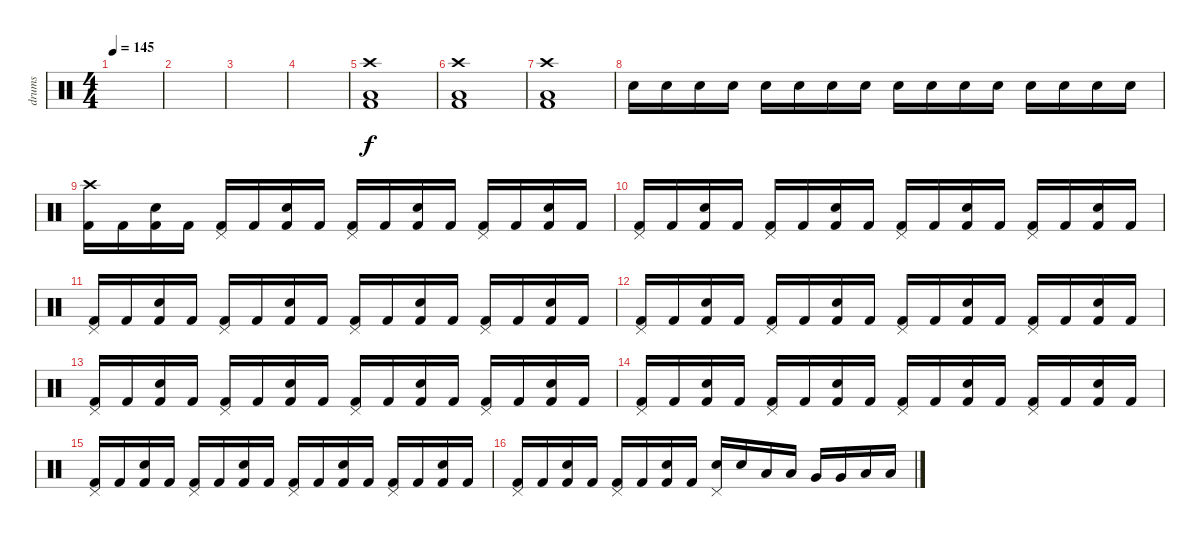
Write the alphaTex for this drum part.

\track ("drums" "drums") {instrument percussion}
\staff {score}
\articulation defaults
\ts (4 4)
\tempo 145
\clef neutral
\ks c
|
|
|
|
("Crash high (hit)" "Low Floor Tom (hit)" "Kick (hit) 2").1 |
("Crash high (hit)" "Low Floor Tom (hit)" "Kick (hit) 2").1 |
("Crash high (hit)" "Low Floor Tom (hit)" "Kick (hit) 2").1 |
"Electric Snare (hit)".16 "Electric Snare (hit)".16 "Electric Snare (hit)".16 "Electric Snare (hit)".16 "Electric Snare (hit)".16 "Electric Snare (hit)".16 "Electric Snare (hit)".16 "Electric Snare (hit)".16 "Electric Snare (hit)".16 "Electric Snare (hit)".16 "Electric Snare (hit)".16 "Electric Snare (hit)".16 "Electric Snare (hit)".16 "Electric Snare (hit)".16 "Electric Snare (hit)".16 "Electric Snare (hit)".16 |
("Crash high (hit)" "Kick (hit) 2").16 "Kick (hit) 2".16 ("Electric Snare (hit)" "Kick (hit) 2").16 "Kick (hit) 2".16 ("Pedal Hi-Hat (hit)" "Kick (hit) 2").16 "Kick (hit) 2".16 ("Electric Snare (hit)" "Kick (hit) 2").16 "Kick (hit) 2".16 ("Pedal Hi-Hat (hit)" "Kick (hit) 2").16 "Kick (hit) 2".16 ("Electric Snare (hit)" "Kick (hit) 2").16 "Kick (hit) 2".16 ("Pedal Hi-Hat (hit)" "Kick (hit) 2").16 "Kick (hit) 2".16 ("Electric Snare (hit)" "Kick (hit) 2").16 "Kick (hit) 2".16 |
("Pedal Hi-Hat (hit)" "Kick (hit) 2").16 "Kick (hit) 2".16 ("Electric Snare (hit)" "Kick (hit) 2").16 "Kick (hit) 2".16 ("Pedal Hi-Hat (hit)" "Kick (hit) 2").16 "Kick (hit) 2".16 ("Electric Snare (hit)" "Kick (hit) 2").16 "Kick (hit) 2".16 ("Pedal Hi-Hat (hit)" "Kick (hit) 2").16 "Kick (hit) 2".16 ("Electric Snare (hit)" "Kick (hit) 2").16 "Kick (hit) 2".16 ("Pedal Hi-Hat (hit)" "Kick (hit) 2").16 "Kick (hit) 2".16 ("Electric Snare (hit)" "Kick (hit) 2").16 "Kick (hit) 2".16 |
("Pedal Hi-Hat (hit)" "Kick (hit) 2").16 "Kick (hit) 2".16 ("Electric Snare (hit)" "Kick (hit) 2").16 "Kick (hit) 2".16 ("Pedal Hi-Hat (hit)" "Kick (hit) 2").16 "Kick (hit) 2".16 ("Electric Snare (hit)" "Kick (hit) 2").16 "Kick (hit) 2".16 ("Pedal Hi-Hat (hit)" "Kick (hit) 2").16 "Kick (hit) 2".16 ("Electric Snare (hit)" "Kick (hit) 2").16 "Kick (hit) 2".16 ("Pedal Hi-Hat (hit)" "Kick (hit) 2").16 "Kick (hit) 2".16 ("Electric Snare (hit)" "Kick (hit) 2").16 "Kick (hit) 2".16 |
("Pedal Hi-Hat (hit)" "Kick (hit) 2").16 "Kick (hit) 2".16 ("Electric Snare (hit)" "Kick (hit) 2").16 "Kick (hit) 2".16 ("Pedal Hi-Hat (hit)" "Kick (hit) 2").16 "Kick (hit) 2".16 ("Electric Snare (hit)" "Kick (hit) 2").16 "Kick (hit) 2".16 ("Pedal Hi-Hat (hit)" "Kick (hit) 2").16 "Kick (hit) 2".16 ("Electric Snare (hit)" "Kick (hit) 2").16 "Kick (hit) 2".16 ("Pedal Hi-Hat (hit)" "Kick (hit) 2").16 "Kick (hit) 2".16 ("Electric Snare (hit)" "Kick (hit) 2").16 "Kick (hit) 2".16 |
("Pedal Hi-Hat (hit)" "Kick (hit) 2").16 "Kick (hit) 2".16 ("Electric Snare (hit)" "Kick (hit) 2").16 "Kick (hit) 2".16 ("Pedal Hi-Hat (hit)" "Kick (hit) 2").16 "Kick (hit) 2".16 ("Electric Snare (hit)" "Kick (hit) 2").16 "Kick (hit) 2".16 ("Pedal Hi-Hat (hit)" "Kick (hit) 2").16 "Kick (hit) 2".16 ("Electric Snare (hit)" "Kick (hit) 2").16 "Kick (hit) 2".16 ("Pedal Hi-Hat (hit)" "Kick (hit) 2").16 "Kick (hit) 2".16 ("Electric Snare (hit)" "Kick (hit) 2").16 "Kick (hit) 2".16 |
("Pedal Hi-Hat (hit)" "Kick (hit) 2").16 "Kick (hit) 2".16 ("Electric Snare (hit)" "Kick (hit) 2").16 "Kick (hit) 2".16 ("Pedal Hi-Hat (hit)" "Kick (hit) 2").16 "Kick (hit) 2".16 ("Electric Snare (hit)" "Kick (hit) 2").16 "Kick (hit) 2".16 ("Pedal Hi-Hat (hit)" "Kick (hit) 2").16 "Kick (hit) 2".16 ("Electric Snare (hit)" "Kick (hit) 2").16 "Kick (hit) 2".16 ("Pedal Hi-Hat (hit)" "Kick (hit) 2").16 "Kick (hit) 2".16 ("Electric Snare (hit)" "Kick (hit) 2").16 "Kick (hit) 2".16 |
("Pedal Hi-Hat (hit)" "Kick (hit) 2").16 "Kick (hit) 2".16 ("Electric Snare (hit)" "Kick (hit) 2").16 "Kick (hit) 2".16 ("Pedal Hi-Hat (hit)" "Kick (hit) 2").16 "Kick (hit) 2".16 ("Electric Snare (hit)" "Kick (hit) 2").16 "Kick (hit) 2".16 ("Pedal Hi-Hat (hit)" "Kick (hit) 2").16 "Kick (hit) 2".16 ("Electric Snare (hit)" "Kick (hit) 2").16 "Kick (hit) 2".16 ("Pedal Hi-Hat (hit)" "Kick (hit) 2").16 "Kick (hit) 2".16 ("Electric Snare (hit)" "Kick (hit) 2").16 "Kick (hit) 2".16 |
("Pedal Hi-Hat (hit)" "Kick (hit) 2").16 "Kick (hit) 2".16 ("Electric Snare (hit)" "Kick (hit) 2").16 "Kick (hit) 2".16 ("Pedal Hi-Hat (hit)" "Kick (hit) 2").16 "Kick (hit) 2".16 ("Electric Snare (hit)" "Kick (hit) 2").16 "Kick (hit) 2".16 ("Pedal Hi-Hat (hit)" "Snare (hit) 2").16 "Snare (hit) 2".16 "Low Tom (hit)".16 "Low Tom (hit)".16 "Very Low Tom (hit)".16 "Very Low Tom (hit)".16 "Low Floor Tom (hit)".16 "Low Floor Tom (hit)".16
